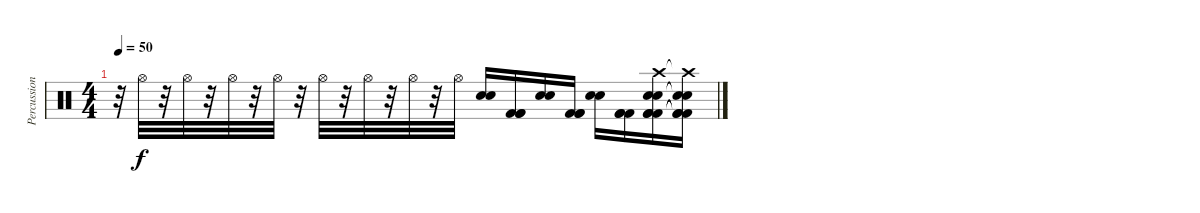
\track ("Percussion" "Percussion") {instrument percussion}
\staff {score}
\articulation defaults
\ts (4 4)
\tempo 50
\clef neutral
\ks c
r.32{dy f} "Hi-Hat (open)".32 r.32 "Hi-Hat (open)".32 r.32 "Hi-Hat (open)".32 r.32 "Hi-Hat (open)".32 r.32 "Hi-Hat (open)".32 r.32 "Hi-Hat (open)".32 r.32 "Hi-Hat (open)".32 r.32 "Hi-Hat (open)".32 ("Snare (hit) 2" "Snare (hit) 2").16 ("Kick (hit) 2" "Kick (hit) 2" "Kick (hit) 2").16 ("Snare (hit) 2" "Snare (hit) 2").16 ("Kick (hit) 2" "Kick (hit) 2" "Kick (hit) 2").16 ("Snare (hit) 2" "Snare (hit) 2").16 ("Kick (hit) 2" "Kick (hit) 2" "Kick (hit) 2").16 ("Crash high (hit)" "Snare (hit) 2" "Snare (hit) 2" "Kick (hit) 2" "Kick (hit) 2" "Kick (hit) 2").16 ("Crash high (hit)"{t} "Snare (hit) 2"{t} "Snare (hit) 2"{t} "Kick (hit) 2"{t} "Kick (hit) 2"{t} "Kick (hit) 2"{t}).16
